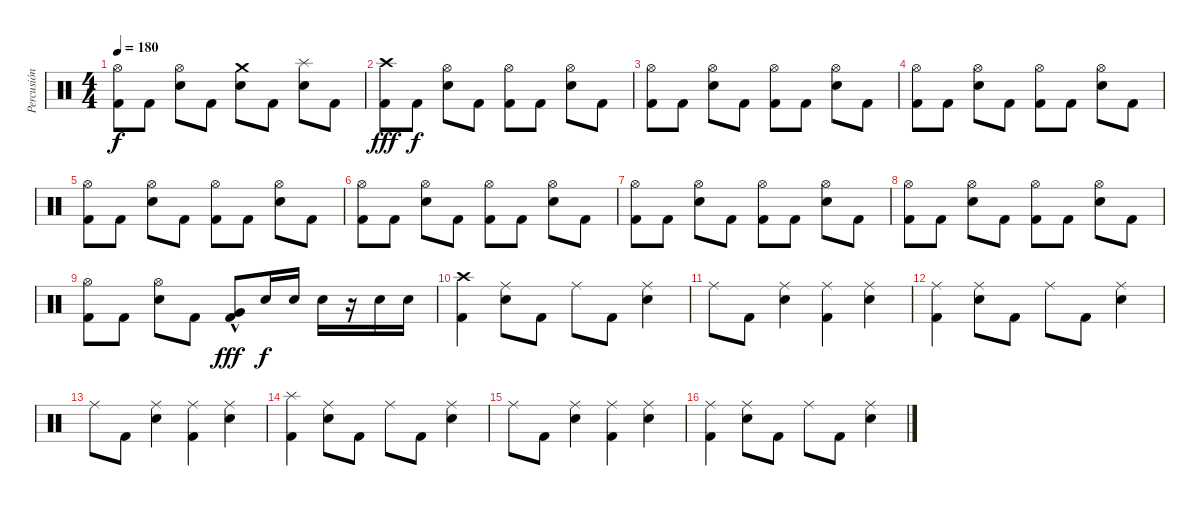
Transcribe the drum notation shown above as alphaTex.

\track ("Percusión" "Percusión") {instrument percussion}
\staff {score}
\articulation defaults
\ts (4 4)
\tempo 180
\clef neutral
\ks c
("Hi-Hat (open)" "Kick (hit) 2").8{dy f} "Kick (hit) 2".8 ("Hi-Hat (open)" "Electric Snare (hit)").8 "Kick (hit) 2".8 ("Crash medium (hit)" "Electric Snare (hit)").8 "Kick (hit) 2".8 ("Splash (hit)" "Electric Snare (hit)").8 "Kick (hit) 2".8 |
("Crash high (hit)" "Kick (hit) 2").8{dy fff} "Kick (hit) 2".8{dy f} ("Hi-Hat (open)" "Electric Snare (hit)").8 "Kick (hit) 2".8 ("Hi-Hat (open)" "Kick (hit) 2").8 "Kick (hit) 2".8 ("Hi-Hat (open)" "Electric Snare (hit)").8 "Kick (hit) 2".8 |
("Hi-Hat (open)" "Kick (hit) 2").8 "Kick (hit) 2".8 ("Hi-Hat (open)" "Electric Snare (hit)").8 "Kick (hit) 2".8 ("Hi-Hat (open)" "Kick (hit) 2").8 "Kick (hit) 2".8 ("Hi-Hat (open)" "Electric Snare (hit)").8 "Kick (hit) 2".8 |
("Hi-Hat (open)" "Kick (hit) 2").8 "Kick (hit) 2".8 ("Hi-Hat (open)" "Electric Snare (hit)").8 "Kick (hit) 2".8 ("Hi-Hat (open)" "Kick (hit) 2").8 "Kick (hit) 2".8 ("Hi-Hat (open)" "Electric Snare (hit)").8 "Kick (hit) 2".8 |
("Hi-Hat (open)" "Kick (hit) 2").8 "Kick (hit) 2".8 ("Hi-Hat (open)" "Electric Snare (hit)").8 "Kick (hit) 2".8 ("Hi-Hat (open)" "Kick (hit) 2").8 "Kick (hit) 2".8 ("Hi-Hat (open)" "Electric Snare (hit)").8 "Kick (hit) 2".8 |
("Hi-Hat (open)" "Kick (hit) 2").8 "Kick (hit) 2".8 ("Hi-Hat (open)" "Electric Snare (hit)").8 "Kick (hit) 2".8 ("Hi-Hat (open)" "Kick (hit) 2").8 "Kick (hit) 2".8 ("Hi-Hat (open)" "Electric Snare (hit)").8 "Kick (hit) 2".8 |
("Hi-Hat (open)" "Kick (hit) 2").8 "Kick (hit) 2".8 ("Hi-Hat (open)" "Electric Snare (hit)").8 "Kick (hit) 2".8 ("Hi-Hat (open)" "Kick (hit) 2").8 "Kick (hit) 2".8 ("Hi-Hat (open)" "Electric Snare (hit)").8 "Kick (hit) 2".8 |
("Hi-Hat (open)" "Kick (hit) 2").8 "Kick (hit) 2".8 ("Hi-Hat (open)" "Electric Snare (hit)").8 "Kick (hit) 2".8 ("Hi-Hat (open)" "Kick (hit) 2").8 "Kick (hit) 2".8 ("Hi-Hat (open)" "Electric Snare (hit)").8 "Kick (hit) 2".8 |
("Hi-Hat (open)" "Kick (hit) 2").8 "Kick (hit) 2".8 ("Hi-Hat (open)" "Electric Snare (hit)").8 "Kick (hit) 2".8 ("Very Low Tom (hit)"{hac} "Kick (hit) 2").8{dy fff} "Electric Snare (hit)".16{dy f} "Electric Snare (hit)".16 "Electric Snare (hit)".16 r.16 "Electric Snare (hit)".16 "Electric Snare (hit)".16 |
("Crash high (hit)" "Kick (hit) 2").4 ("Ride (middle)" "Electric Snare (hit)").8 "Kick (hit) 2".8 "Ride (middle)".8 "Kick (hit) 2".8 ("Ride (middle)" "Electric Snare (hit)").4 |
"Ride (middle)".8 "Kick (hit) 2".8 ("Ride (middle)" "Electric Snare (hit)").4 ("Ride (middle)" "Kick (hit) 2").4 ("Ride (middle)" "Electric Snare (hit)").4 |
("Ride (middle)" "Kick (hit) 2").4 ("Ride (middle)" "Electric Snare (hit)").8 "Kick (hit) 2".8 "Ride (middle)".8 "Kick (hit) 2".8 ("Ride (middle)" "Electric Snare (hit)").4 |
"Ride (middle)".8 "Kick (hit) 2".8 ("Ride (middle)" "Electric Snare (hit)").4 ("Ride (middle)" "Kick (hit) 2").4 ("Ride (middle)" "Electric Snare (hit)").4 |
("Splash (hit)" "Kick (hit) 2").4 ("Ride (middle)" "Electric Snare (hit)").8 "Kick (hit) 2".8 "Ride (middle)".8 "Kick (hit) 2".8 ("Ride (middle)" "Electric Snare (hit)").4 |
"Ride (middle)".8 "Kick (hit) 2".8 ("Ride (middle)" "Electric Snare (hit)").4 ("Ride (middle)" "Kick (hit) 2").4 ("Ride (middle)" "Electric Snare (hit)").4 |
("Ride (middle)" "Kick (hit) 2").4 ("Ride (middle)" "Electric Snare (hit)").8 "Kick (hit) 2".8 "Ride (middle)".8 "Kick (hit) 2".8 ("Ride (middle)" "Electric Snare (hit)").4
